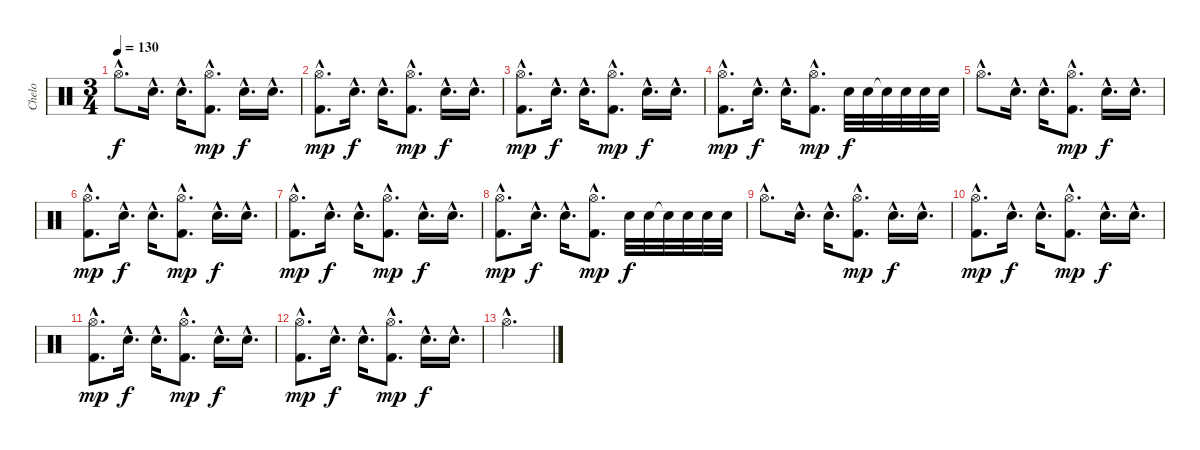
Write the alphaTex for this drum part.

\track ("Chelo" "Chelo") {instrument percussion}
\staff {score}
\articulation defaults
\ts (3 4)
\tempo 130
\clef neutral
\ks c "Hi-Hat (open)"{hac}.8{d dy f} "Electric Snare (hit)"{hac}.16{d} "Electric Snare (hit)"{hac}.16{d}
("Hi-Hat (open)"{hac} "Kick (hit) 2"{hac}).8{d dy mp} "Electric Snare (hit)"{hac}.16{d dy f} "Electric Snare (hit)"{hac}.16{d} |
("Hi-Hat (open)"{hac} "Kick (hit) 2"{hac}).8{d dy mp} "Electric Snare (hit)"{hac}.16{d dy f} "Electric Snare (hit)"{hac}.16{d} ("Hi-Hat (open)"{hac} "Kick (hit) 2"{hac}).8{d dy mp} "Electric Snare (hit)"{hac}.16{d dy f} "Electric Snare (hit)"{hac}.16{d} |
("Hi-Hat (open)"{hac} "Kick (hit) 2"{hac}).8{d dy mp} "Electric Snare (hit)"{hac}.16{d dy f} "Electric Snare (hit)"{hac}.16{d} ("Hi-Hat (open)"{hac} "Kick (hit) 2"{hac}).8{d dy mp} "Electric Snare (hit)"{hac}.16{d dy f} "Electric Snare (hit)"{hac}.16{d} |
("Hi-Hat (open)"{hac} "Kick (hit) 2"{hac}).8{d dy mp} "Electric Snare (hit)"{hac}.16{d dy f} "Electric Snare (hit)"{hac}.16{d} ("Hi-Hat (open)"{hac} "Kick (hit) 2"{hac}).8{d dy mp} "Electric Snare (hit)".32{dy f} "Electric Snare (hit)".32 "Electric Snare (hit)"{t}.32 "Electric Snare (hit)".32 "Electric Snare (hit)".32 "Electric Snare (hit)".32 |
"Hi-Hat (open)"{hac}.8{d} "Electric Snare (hit)"{hac}.16{d} "Electric Snare (hit)"{hac}.16{d} ("Hi-Hat (open)"{hac} "Kick (hit) 2"{hac}).8{d dy mp} "Electric Snare (hit)"{hac}.16{d dy f} "Electric Snare (hit)"{hac}.16{d} |
("Hi-Hat (open)"{hac} "Kick (hit) 2"{hac}).8{d dy mp} "Electric Snare (hit)"{hac}.16{d dy f} "Electric Snare (hit)"{hac}.16{d} ("Hi-Hat (open)"{hac} "Kick (hit) 2"{hac}).8{d dy mp} "Electric Snare (hit)"{hac}.16{d dy f} "Electric Snare (hit)"{hac}.16{d} |
("Hi-Hat (open)"{hac} "Kick (hit) 2"{hac}).8{d dy mp} "Electric Snare (hit)"{hac}.16{d dy f} "Electric Snare (hit)"{hac}.16{d} ("Hi-Hat (open)"{hac} "Kick (hit) 2"{hac}).8{d dy mp} "Electric Snare (hit)"{hac}.16{d dy f} "Electric Snare (hit)"{hac}.16{d} |
("Hi-Hat (open)"{hac} "Kick (hit) 2"{hac}).8{d dy mp} "Electric Snare (hit)"{hac}.16{d dy f} "Electric Snare (hit)"{hac}.16{d} ("Hi-Hat (open)"{hac} "Kick (hit) 2"{hac}).8{d dy mp} "Electric Snare (hit)".32{dy f} "Electric Snare (hit)".32 "Electric Snare (hit)"{t}.32 "Electric Snare (hit)".32 "Electric Snare (hit)".32 "Electric Snare (hit)".32 |
"Hi-Hat (open)"{hac}.8{d} "Electric Snare (hit)"{hac}.16{d} "Electric Snare (hit)"{hac}.16{d} ("Hi-Hat (open)"{hac} "Kick (hit) 2"{hac}).8{d dy mp} "Electric Snare (hit)"{hac}.16{d dy f} "Electric Snare (hit)"{hac}.16{d} |
("Hi-Hat (open)"{hac} "Kick (hit) 2"{hac}).8{d dy mp} "Electric Snare (hit)"{hac}.16{d dy f} "Electric Snare (hit)"{hac}.16{d} ("Hi-Hat (open)"{hac} "Kick (hit) 2"{hac}).8{d dy mp} "Electric Snare (hit)"{hac}.16{d dy f} "Electric Snare (hit)"{hac}.16{d} |
("Hi-Hat (open)"{hac} "Kick (hit) 2"{hac}).8{d dy mp} "Electric Snare (hit)"{hac}.16{d dy f} "Electric Snare (hit)"{hac}.16{d} ("Hi-Hat (open)"{hac} "Kick (hit) 2"{hac}).8{d dy mp} "Electric Snare (hit)"{hac}.16{d dy f} "Electric Snare (hit)"{hac}.16{d} |
("Hi-Hat (open)"{hac} "Kick (hit) 2"{hac}).8{d dy mp} "Electric Snare (hit)"{hac}.16{d dy f} "Electric Snare (hit)"{hac}.16{d} ("Hi-Hat (open)"{hac} "Kick (hit) 2"{hac}).8{d dy mp} "Electric Snare (hit)"{hac}.16{d dy f} "Electric Snare (hit)"{hac}.16{d} |
"Hi-Hat (open)"{hac}.2{d}
